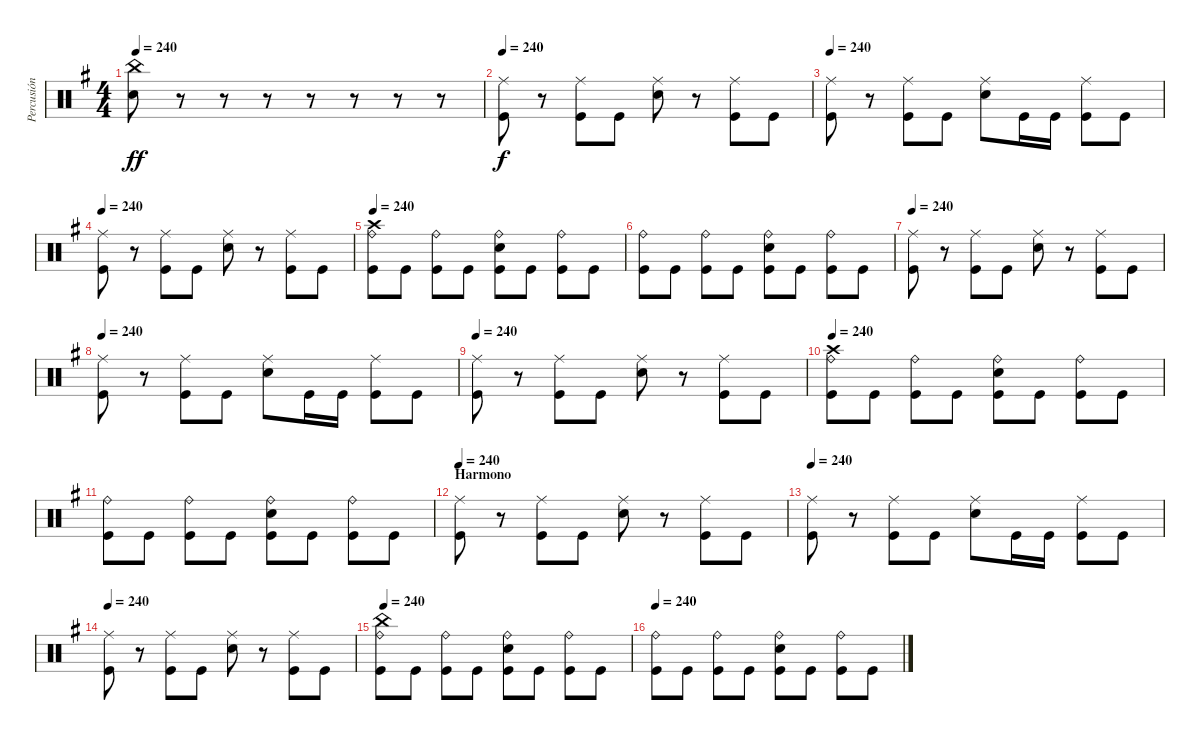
\track ("Percusión" "Percusión") {instrument percussion}
\staff {score}
\articulation defaults
\ts (4 4)
\tempo 240
\clef neutral
\ks g
("Snare (hit) 2" "China (hit)").8{dy ff} r.8 r.8 r.8 r.8 r.8 r.8 r.8 |
\tempo 240
("Ride (middle)" "Kick (hit)").8{dy f} r.8 ("Ride (middle)" "Kick (hit)").8 "Kick (hit)".8 ("Ride (middle)" "Snare (hit) 2").8 r.8 ("Ride (middle)" "Kick (hit)").8 "Kick (hit)".8 |
\tempo 240
("Ride (middle)" "Kick (hit)").8 r.8 ("Ride (middle)" "Kick (hit)").8 "Kick (hit)".8 ("Ride (middle)" "Snare (hit) 2").8 "Kick (hit)".16 "Kick (hit)".16 ("Ride (middle)" "Kick (hit)").8 "Kick (hit)".8 |
\tempo 240
("Ride (middle)" "Kick (hit)").8 r.8 ("Ride (middle)" "Kick (hit)").8 "Kick (hit)".8 ("Ride (middle)" "Snare (hit) 2").8 r.8 ("Ride (middle)" "Kick (hit)").8 "Kick (hit)".8 |
\tempo 240
("Crash high (hit)" "Ride (bell)" "Kick (hit)").8 "Kick (hit)".8 ("Ride (bell)" "Kick (hit)").8 "Kick (hit)".8 ("Ride (bell)" "Kick (hit)" "Snare (hit) 2").8 "Kick (hit)".8 ("Ride (bell)" "Kick (hit)").8 "Kick (hit)".8 |
("Ride (bell)" "Kick (hit)").8 "Kick (hit)".8 ("Ride (bell)" "Kick (hit)").8 "Kick (hit)".8 ("Ride (bell)" "Kick (hit)" "Snare (hit) 2").8 "Kick (hit)".8 ("Ride (bell)" "Kick (hit)").8 "Kick (hit)".8 |
\tempo 240
("Ride (middle)" "Kick (hit)").8 r.8 ("Ride (middle)" "Kick (hit)").8 "Kick (hit)".8 ("Ride (middle)" "Snare (hit) 2").8 r.8 ("Ride (middle)" "Kick (hit)").8 "Kick (hit)".8 |
\tempo 240
("Ride (middle)" "Kick (hit)").8 r.8 ("Ride (middle)" "Kick (hit)").8 "Kick (hit)".8 ("Ride (middle)" "Snare (hit) 2").8 "Kick (hit)".16 "Kick (hit)".16 ("Ride (middle)" "Kick (hit)").8 "Kick (hit)".8 |
\tempo 240
("Ride (middle)" "Kick (hit)").8 r.8 ("Ride (middle)" "Kick (hit)").8 "Kick (hit)".8 ("Ride (middle)" "Snare (hit) 2").8 r.8 ("Ride (middle)" "Kick (hit)").8 "Kick (hit)".8 |
\tempo 240
("Crash high (hit)" "Ride (bell)" "Kick (hit)").8 "Kick (hit)".8 ("Ride (bell)" "Kick (hit)").8 "Kick (hit)".8 ("Ride (bell)" "Kick (hit)" "Snare (hit) 2").8 "Kick (hit)".8 ("Ride (bell)" "Kick (hit)").8 "Kick (hit)".8 |
("Ride (bell)" "Kick (hit)").8 "Kick (hit)".8 ("Ride (bell)" "Kick (hit)").8 "Kick (hit)".8 ("Ride (bell)" "Kick (hit)" "Snare (hit) 2").8 "Kick (hit)".8 ("Ride (bell)" "Kick (hit)").8 "Kick (hit)".8 |
\section ("" "Harmono")
\tempo 240
("Ride (middle)" "Kick (hit)").8 r.8 ("Ride (middle)" "Kick (hit)").8 "Kick (hit)".8 ("Ride (middle)" "Snare (hit) 2").8 r.8 ("Ride (middle)" "Kick (hit)").8 "Kick (hit)".8 |
\tempo 240
("Ride (middle)" "Kick (hit)").8 r.8 ("Ride (middle)" "Kick (hit)").8 "Kick (hit)".8 ("Ride (middle)" "Snare (hit) 2").8 "Kick (hit)".16 "Kick (hit)".16 ("Ride (middle)" "Kick (hit)").8 "Kick (hit)".8 |
\tempo 240
("Ride (middle)" "Kick (hit)").8 r.8 ("Ride (middle)" "Kick (hit)").8 "Kick (hit)".8 ("Ride (middle)" "Snare (hit) 2").8 r.8 ("Ride (middle)" "Kick (hit)").8 "Kick (hit)".8 |
\tempo 240
("Ride (bell)" "Kick (hit)" "China (hit)").8 "Kick (hit)".8 ("Ride (bell)" "Kick (hit)").8 "Kick (hit)".8 ("Ride (bell)" "Kick (hit)" "Snare (hit) 2").8 "Kick (hit)".8 ("Ride (bell)" "Kick (hit)").8 "Kick (hit)".8 |
\tempo 240
("Ride (bell)" "Kick (hit)").8 "Kick (hit)".8 ("Ride (bell)" "Kick (hit)").8 "Kick (hit)".8 ("Ride (bell)" "Kick (hit)" "Snare (hit) 2").8 "Kick (hit)".8 ("Ride (bell)" "Kick (hit)").8 "Kick (hit)".8
